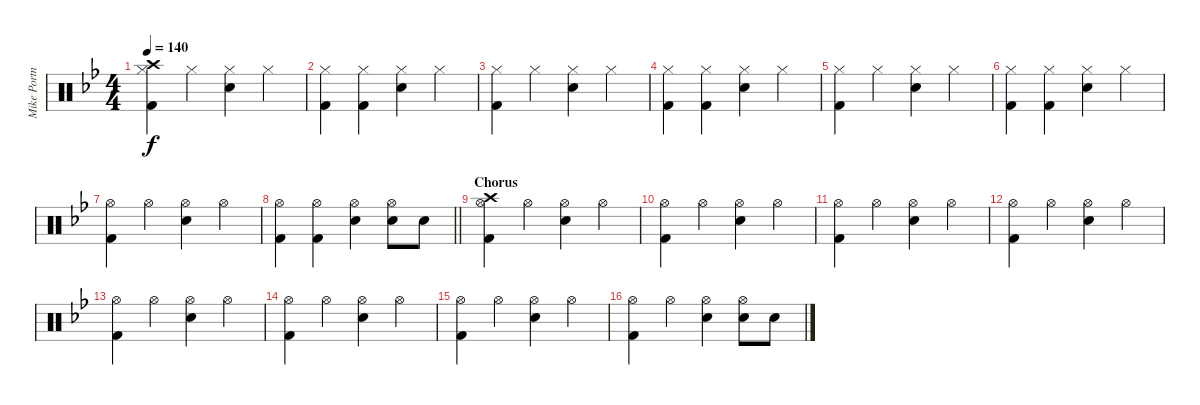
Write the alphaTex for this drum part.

\track ("Mike Portnoy" "Mike Portn") {instrument percussion}
\staff {score}
\articulation defaults
\ts (4 4)
\tempo 140
\clef neutral
\ks bb
("Crash high (hit)" "Hi-Hat (closed)" "Kick (hit) 2").4{dy f} "Hi-Hat (closed)".4 ("Hi-Hat (closed)" "Electric Snare (hit)").4 "Hi-Hat (closed)".4 |
("Hi-Hat (closed)" "Kick (hit) 2").4 ("Hi-Hat (closed)" "Kick (hit) 2").4 ("Hi-Hat (closed)" "Electric Snare (hit)").4 "Hi-Hat (closed)".4 |
("Hi-Hat (closed)" "Kick (hit) 2").4 "Hi-Hat (closed)".4 ("Hi-Hat (closed)" "Electric Snare (hit)").4 "Hi-Hat (closed)".4 |
("Hi-Hat (closed)" "Kick (hit) 2").4 ("Hi-Hat (closed)" "Kick (hit) 2").4 ("Hi-Hat (closed)" "Electric Snare (hit)").4 "Hi-Hat (closed)".4 |
("Hi-Hat (closed)" "Kick (hit) 2").4 "Hi-Hat (closed)".4 ("Hi-Hat (closed)" "Electric Snare (hit)").4 "Hi-Hat (closed)".4 |
("Hi-Hat (closed)" "Kick (hit) 2").4 ("Hi-Hat (closed)" "Kick (hit) 2").4 ("Hi-Hat (closed)" "Electric Snare (hit)").4 "Hi-Hat (closed)".4 |
("Hi-Hat (open)" "Kick (hit) 2").4 "Hi-Hat (open)".4 ("Hi-Hat (open)" "Electric Snare (hit)").4 "Hi-Hat (open)".4 |
\barLineRight lightlight
("Hi-Hat (open)" "Kick (hit) 2").4 ("Hi-Hat (open)" "Kick (hit) 2").4 ("Hi-Hat (open)" "Electric Snare (hit)").4 ("Hi-Hat (open)" "Electric Snare (hit)").8 "Electric Snare (hit)".8 |
\section ("" "Chorus")
("Crash high (hit)" "Hi-Hat (open)" "Kick (hit) 2").4 "Hi-Hat (open)".4 ("Hi-Hat (open)" "Electric Snare (hit)").4 "Hi-Hat (open)".4 |
("Hi-Hat (open)" "Kick (hit) 2").4 "Hi-Hat (open)".4 ("Hi-Hat (open)" "Electric Snare (hit)").4 "Hi-Hat (open)".4 |
("Hi-Hat (open)" "Kick (hit) 2").4 "Hi-Hat (open)".4 ("Hi-Hat (open)" "Electric Snare (hit)").4 "Hi-Hat (open)".4 |
("Hi-Hat (open)" "Kick (hit) 2").4 "Hi-Hat (open)".4 ("Hi-Hat (open)" "Electric Snare (hit)").4 "Hi-Hat (open)".4 |
("Hi-Hat (open)" "Kick (hit) 2").4 "Hi-Hat (open)".4 ("Hi-Hat (open)" "Electric Snare (hit)").4 "Hi-Hat (open)".4 |
("Hi-Hat (open)" "Kick (hit) 2").4 "Hi-Hat (open)".4 ("Hi-Hat (open)" "Electric Snare (hit)").4 "Hi-Hat (open)".4 |
("Hi-Hat (open)" "Kick (hit) 2").4 "Hi-Hat (open)".4 ("Hi-Hat (open)" "Electric Snare (hit)").4 "Hi-Hat (open)".4 |
("Hi-Hat (open)" "Kick (hit) 2").4 "Hi-Hat (open)".4 ("Hi-Hat (open)" "Electric Snare (hit)").4 ("Hi-Hat (open)" "Electric Snare (hit)").8 "Electric Snare (hit)".8
